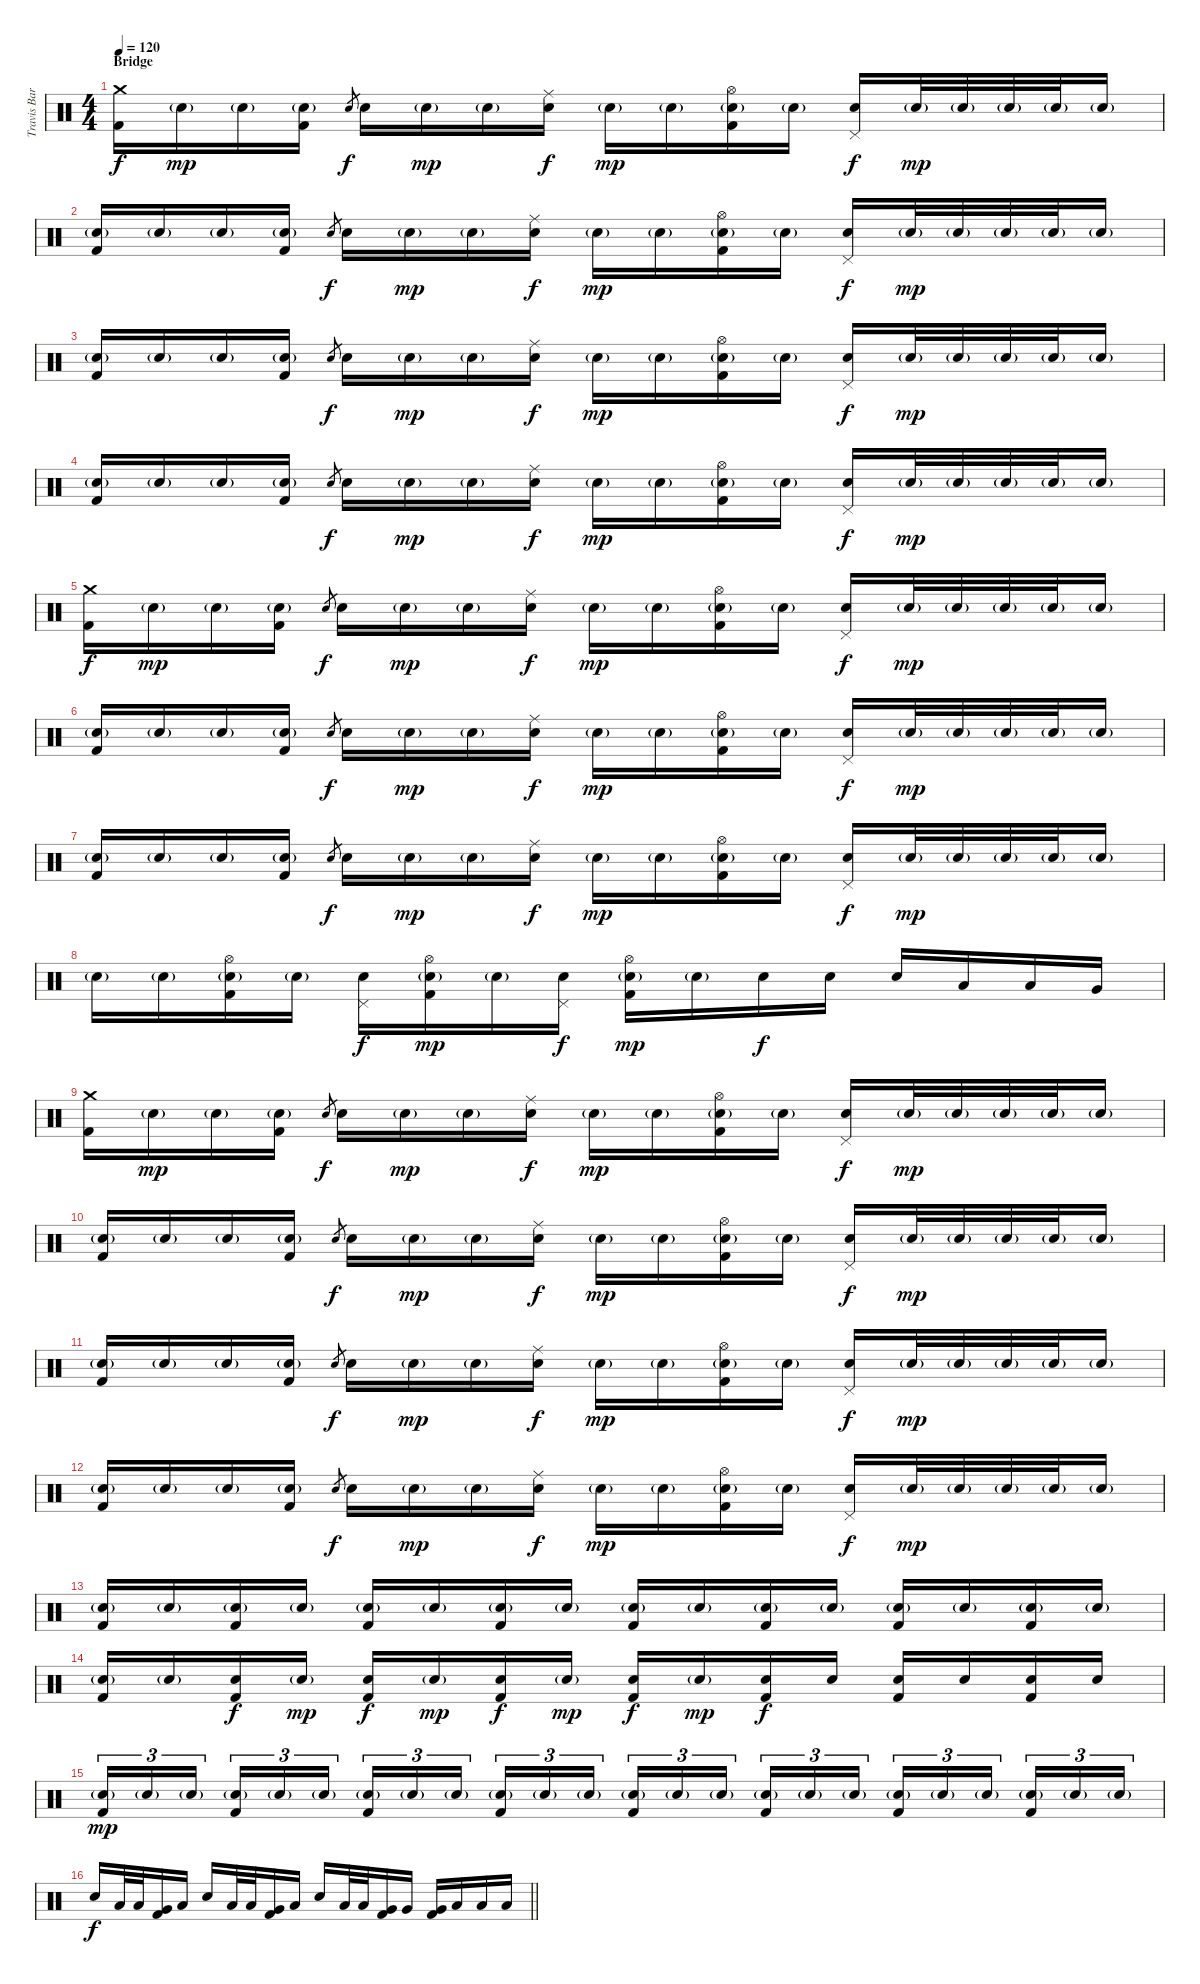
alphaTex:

\track ("Travis Barker - Drums" "Travis Bar") {instrument percussion}
\staff {score}
\articulation defaults
\ts (4 4)
\section ("" "Bridge")
\tempo 120
\clef neutral
\ks c
("Crash medium (hit)" "Kick (hit) 2").16{dy f} "Electric Snare (hit)"{g}.16{dy mp} "Electric Snare (hit)"{g}.16 ("Electric Snare (hit)"{g} "Kick (hit) 2").16 "Electric Snare (hit)".8{gr dy f} "Electric Snare (hit)".16 "Electric Snare (hit)"{g}.16{dy mp} "Electric Snare (hit)"{g}.16 ("Ride (middle)" "Electric Snare (hit)").16{dy f} "Electric Snare (hit)"{g}.16{dy mp} "Electric Snare (hit)"{g}.16 ("Hi-Hat (open)" "Electric Snare (hit)"{g} "Kick (hit) 2").16 "Electric Snare (hit)"{g}.16 ("Pedal Hi-Hat (hit)" "Electric Snare (hit)").16{dy f} "Electric Snare (hit)"{g}.32{dy mp} "Electric Snare (hit)"{g}.32 "Electric Snare (hit)"{g}.32 "Electric Snare (hit)"{g}.32 "Electric Snare (hit)"{g}.16 |
("Electric Snare (hit)"{g} "Kick (hit) 2").16 "Electric Snare (hit)"{g}.16 "Electric Snare (hit)"{g}.16 ("Electric Snare (hit)"{g} "Kick (hit) 2").16 "Electric Snare (hit)".8{gr dy f} "Electric Snare (hit)".16 "Electric Snare (hit)"{g}.16{dy mp} "Electric Snare (hit)"{g}.16 ("Ride (middle)" "Electric Snare (hit)").16{dy f} "Electric Snare (hit)"{g}.16{dy mp} "Electric Snare (hit)"{g}.16 ("Hi-Hat (open)" "Electric Snare (hit)"{g} "Kick (hit) 2").16 "Electric Snare (hit)"{g}.16 ("Pedal Hi-Hat (hit)" "Electric Snare (hit)").16{dy f} "Electric Snare (hit)"{g}.32{dy mp} "Electric Snare (hit)"{g}.32 "Electric Snare (hit)"{g}.32 "Electric Snare (hit)"{g}.32 "Electric Snare (hit)"{g}.16 |
("Electric Snare (hit)"{g} "Kick (hit) 2").16 "Electric Snare (hit)"{g}.16 "Electric Snare (hit)"{g}.16 ("Electric Snare (hit)"{g} "Kick (hit) 2").16 "Electric Snare (hit)".8{gr dy f} "Electric Snare (hit)".16 "Electric Snare (hit)"{g}.16{dy mp} "Electric Snare (hit)"{g}.16 ("Ride (middle)" "Electric Snare (hit)").16{dy f} "Electric Snare (hit)"{g}.16{dy mp} "Electric Snare (hit)"{g}.16 ("Hi-Hat (open)" "Electric Snare (hit)"{g} "Kick (hit) 2").16 "Electric Snare (hit)"{g}.16 ("Pedal Hi-Hat (hit)" "Electric Snare (hit)").16{dy f} "Electric Snare (hit)"{g}.32{dy mp} "Electric Snare (hit)"{g}.32 "Electric Snare (hit)"{g}.32 "Electric Snare (hit)"{g}.32 "Electric Snare (hit)"{g}.16 |
("Electric Snare (hit)"{g} "Kick (hit) 2").16 "Electric Snare (hit)"{g}.16 "Electric Snare (hit)"{g}.16 ("Electric Snare (hit)"{g} "Kick (hit) 2").16 "Electric Snare (hit)".8{gr dy f} "Electric Snare (hit)".16 "Electric Snare (hit)"{g}.16{dy mp} "Electric Snare (hit)"{g}.16 ("Ride (middle)" "Electric Snare (hit)").16{dy f} "Electric Snare (hit)"{g}.16{dy mp} "Electric Snare (hit)"{g}.16 ("Hi-Hat (open)" "Electric Snare (hit)"{g} "Kick (hit) 2").16 "Electric Snare (hit)"{g}.16 ("Pedal Hi-Hat (hit)" "Electric Snare (hit)").16{dy f} "Electric Snare (hit)"{g}.32{dy mp} "Electric Snare (hit)"{g}.32 "Electric Snare (hit)"{g}.32 "Electric Snare (hit)"{g}.32 "Electric Snare (hit)"{g}.16 |
("Crash medium (hit)" "Kick (hit) 2").16{dy f} "Electric Snare (hit)"{g}.16{dy mp} "Electric Snare (hit)"{g}.16 ("Electric Snare (hit)"{g} "Kick (hit) 2").16 "Electric Snare (hit)".8{gr dy f} "Electric Snare (hit)".16 "Electric Snare (hit)"{g}.16{dy mp} "Electric Snare (hit)"{g}.16 ("Ride (middle)" "Electric Snare (hit)").16{dy f} "Electric Snare (hit)"{g}.16{dy mp} "Electric Snare (hit)"{g}.16 ("Hi-Hat (open)" "Electric Snare (hit)"{g} "Kick (hit) 2").16 "Electric Snare (hit)"{g}.16 ("Pedal Hi-Hat (hit)" "Electric Snare (hit)").16{dy f} "Electric Snare (hit)"{g}.32{dy mp} "Electric Snare (hit)"{g}.32 "Electric Snare (hit)"{g}.32 "Electric Snare (hit)"{g}.32 "Electric Snare (hit)"{g}.16 |
("Electric Snare (hit)"{g} "Kick (hit) 2").16 "Electric Snare (hit)"{g}.16 "Electric Snare (hit)"{g}.16 ("Electric Snare (hit)"{g} "Kick (hit) 2").16 "Electric Snare (hit)".8{gr dy f} "Electric Snare (hit)".16 "Electric Snare (hit)"{g}.16{dy mp} "Electric Snare (hit)"{g}.16 ("Ride (middle)" "Electric Snare (hit)").16{dy f} "Electric Snare (hit)"{g}.16{dy mp} "Electric Snare (hit)"{g}.16 ("Hi-Hat (open)" "Electric Snare (hit)"{g} "Kick (hit) 2").16 "Electric Snare (hit)"{g}.16 ("Pedal Hi-Hat (hit)" "Electric Snare (hit)").16{dy f} "Electric Snare (hit)"{g}.32{dy mp} "Electric Snare (hit)"{g}.32 "Electric Snare (hit)"{g}.32 "Electric Snare (hit)"{g}.32 "Electric Snare (hit)"{g}.16 |
("Electric Snare (hit)"{g} "Kick (hit) 2").16 "Electric Snare (hit)"{g}.16 "Electric Snare (hit)"{g}.16 ("Electric Snare (hit)"{g} "Kick (hit) 2").16 "Electric Snare (hit)".8{gr dy f} "Electric Snare (hit)".16 "Electric Snare (hit)"{g}.16{dy mp} "Electric Snare (hit)"{g}.16 ("Ride (middle)" "Electric Snare (hit)").16{dy f} "Electric Snare (hit)"{g}.16{dy mp} "Electric Snare (hit)"{g}.16 ("Hi-Hat (open)" "Electric Snare (hit)"{g} "Kick (hit) 2").16 "Electric Snare (hit)"{g}.16 ("Pedal Hi-Hat (hit)" "Electric Snare (hit)").16{dy f} "Electric Snare (hit)"{g}.32{dy mp} "Electric Snare (hit)"{g}.32 "Electric Snare (hit)"{g}.32 "Electric Snare (hit)"{g}.32 "Electric Snare (hit)"{g}.16 |
"Electric Snare (hit)"{g}.16 "Electric Snare (hit)"{g}.16 ("Hi-Hat (open)" "Electric Snare (hit)"{g} "Kick (hit) 2").16 "Electric Snare (hit)"{g}.16 ("Pedal Hi-Hat (hit)" "Electric Snare (hit)").16{dy f} ("Hi-Hat (open)" "Electric Snare (hit)"{g} "Kick (hit) 2").16{dy mp} "Electric Snare (hit)"{g}.16 ("Pedal Hi-Hat (hit)" "Electric Snare (hit)").16{dy f} ("Hi-Hat (open)" "Electric Snare (hit)"{g} "Kick (hit) 2").16{dy mp} "Electric Snare (hit)"{g}.16 "Electric Snare (hit)".16{dy f} "Electric Snare (hit)".16 "Electric Snare (hit)".16 "Low Tom (hit)".16 "Low Tom (hit)".16 "Very Low Tom (hit)".16 |
("Crash medium (hit)" "Kick (hit) 2").16 "Electric Snare (hit)"{g}.16{dy mp} "Electric Snare (hit)"{g}.16 ("Electric Snare (hit)"{g} "Kick (hit) 2").16 "Electric Snare (hit)".8{gr dy f} "Electric Snare (hit)".16 "Electric Snare (hit)"{g}.16{dy mp} "Electric Snare (hit)"{g}.16 ("Ride (middle)" "Electric Snare (hit)").16{dy f} "Electric Snare (hit)"{g}.16{dy mp} "Electric Snare (hit)"{g}.16 ("Hi-Hat (open)" "Electric Snare (hit)"{g} "Kick (hit) 2").16 "Electric Snare (hit)"{g}.16 ("Pedal Hi-Hat (hit)" "Electric Snare (hit)").16{dy f} "Electric Snare (hit)"{g}.32{dy mp} "Electric Snare (hit)"{g}.32 "Electric Snare (hit)"{g}.32 "Electric Snare (hit)"{g}.32 "Electric Snare (hit)"{g}.16 |
("Electric Snare (hit)"{g} "Kick (hit) 2").16 "Electric Snare (hit)"{g}.16 "Electric Snare (hit)"{g}.16 ("Electric Snare (hit)"{g} "Kick (hit) 2").16 "Electric Snare (hit)".8{gr dy f} "Electric Snare (hit)".16 "Electric Snare (hit)"{g}.16{dy mp} "Electric Snare (hit)"{g}.16 ("Ride (middle)" "Electric Snare (hit)").16{dy f} "Electric Snare (hit)"{g}.16{dy mp} "Electric Snare (hit)"{g}.16 ("Hi-Hat (open)" "Electric Snare (hit)"{g} "Kick (hit) 2").16 "Electric Snare (hit)"{g}.16 ("Pedal Hi-Hat (hit)" "Electric Snare (hit)").16{dy f} "Electric Snare (hit)"{g}.32{dy mp} "Electric Snare (hit)"{g}.32 "Electric Snare (hit)"{g}.32 "Electric Snare (hit)"{g}.32 "Electric Snare (hit)"{g}.16 |
("Electric Snare (hit)"{g} "Kick (hit) 2").16 "Electric Snare (hit)"{g}.16 "Electric Snare (hit)"{g}.16 ("Electric Snare (hit)"{g} "Kick (hit) 2").16 "Electric Snare (hit)".8{gr dy f} "Electric Snare (hit)".16 "Electric Snare (hit)"{g}.16{dy mp} "Electric Snare (hit)"{g}.16 ("Ride (middle)" "Electric Snare (hit)").16{dy f} "Electric Snare (hit)"{g}.16{dy mp} "Electric Snare (hit)"{g}.16 ("Hi-Hat (open)" "Electric Snare (hit)"{g} "Kick (hit) 2").16 "Electric Snare (hit)"{g}.16 ("Pedal Hi-Hat (hit)" "Electric Snare (hit)").16{dy f} "Electric Snare (hit)"{g}.32{dy mp} "Electric Snare (hit)"{g}.32 "Electric Snare (hit)"{g}.32 "Electric Snare (hit)"{g}.32 "Electric Snare (hit)"{g}.16 |
("Electric Snare (hit)"{g} "Kick (hit) 2").16 "Electric Snare (hit)"{g}.16 "Electric Snare (hit)"{g}.16 ("Electric Snare (hit)"{g} "Kick (hit) 2").16 "Electric Snare (hit)".8{gr dy f} "Electric Snare (hit)".16 "Electric Snare (hit)"{g}.16{dy mp} "Electric Snare (hit)"{g}.16 ("Ride (middle)" "Electric Snare (hit)").16{dy f} "Electric Snare (hit)"{g}.16{dy mp} "Electric Snare (hit)"{g}.16 ("Hi-Hat (open)" "Electric Snare (hit)"{g} "Kick (hit) 2").16 "Electric Snare (hit)"{g}.16 ("Pedal Hi-Hat (hit)" "Electric Snare (hit)").16{dy f} "Electric Snare (hit)"{g}.32{dy mp} "Electric Snare (hit)"{g}.32 "Electric Snare (hit)"{g}.32 "Electric Snare (hit)"{g}.32 "Electric Snare (hit)"{g}.16 |
("Electric Snare (hit)"{g} "Kick (hit) 2").16{volume 9} "Electric Snare (hit)"{g}.16{volume 12} ("Electric Snare (hit)"{g} "Kick (hit) 2").16 "Electric Snare (hit)"{g}.16 ("Electric Snare (hit)"{g} "Kick (hit) 2").16 "Electric Snare (hit)"{g}.16 ("Electric Snare (hit)"{g} "Kick (hit) 2").16 "Electric Snare (hit)"{g}.16 ("Electric Snare (hit)"{g} "Kick (hit) 2").16 "Electric Snare (hit)"{g}.16 ("Electric Snare (hit)"{g} "Kick (hit) 2").16 "Electric Snare (hit)"{g}.16 ("Electric Snare (hit)"{g} "Kick (hit) 2").16 "Electric Snare (hit)"{g}.16 ("Electric Snare (hit)"{g} "Kick (hit) 2").16 "Electric Snare (hit)"{g}.16 |
("Electric Snare (hit)"{g} "Kick (hit) 2").16 "Electric Snare (hit)"{g}.16 ("Electric Snare (hit)" "Kick (hit) 2").16{dy f} "Electric Snare (hit)"{g}.16{dy mp} ("Electric Snare (hit)" "Kick (hit) 2").16{dy f} "Electric Snare (hit)"{g}.16{dy mp} ("Electric Snare (hit)" "Kick (hit) 2").16{dy f} "Electric Snare (hit)"{g}.16{dy mp} ("Electric Snare (hit)" "Kick (hit) 2").16{dy f} "Electric Snare (hit)"{g}.16{dy mp} ("Electric Snare (hit)" "Kick (hit) 2").16{dy f} "Electric Snare (hit)".16 ("Electric Snare (hit)" "Kick (hit) 2").16 "Electric Snare (hit)".16 ("Electric Snare (hit)" "Kick (hit) 2").16 "Electric Snare (hit)".16 |
("Electric Snare (hit)"{g} "Kick (hit) 2").16{tu (3 2) dy mp} "Electric Snare (hit)"{g}.16{tu (3 2)} "Electric Snare (hit)"{g}.16{tu (3 2) beam splitsecondary} ("Electric Snare (hit)"{g} "Kick (hit) 2").16{tu (3 2)} "Electric Snare (hit)"{g}.16{tu (3 2)} "Electric Snare (hit)"{g}.16{tu (3 2)} ("Electric Snare (hit)"{g} "Kick (hit) 2").16{tu (3 2)} "Electric Snare (hit)"{g}.16{tu (3 2)} "Electric Snare (hit)"{g}.16{tu (3 2) beam splitsecondary} ("Electric Snare (hit)"{g} "Kick (hit) 2").16{tu (3 2)} "Electric Snare (hit)"{g}.16{tu (3 2)} "Electric Snare (hit)"{g}.16{tu (3 2)} ("Electric Snare (hit)"{g} "Kick (hit) 2").16{tu (3 2)} "Electric Snare (hit)"{g}.16{tu (3 2)} "Electric Snare (hit)"{g}.16{tu (3 2) beam splitsecondary} ("Electric Snare (hit)"{g} "Kick (hit) 2").16{tu (3 2)} "Electric Snare (hit)"{g}.16{tu (3 2)} "Electric Snare (hit)"{g}.16{tu (3 2)} ("Electric Snare (hit)"{g} "Kick (hit) 2").16{tu (3 2)} "Electric Snare (hit)"{g}.16{tu (3 2)} "Electric Snare (hit)"{g}.16{tu (3 2) beam splitsecondary} ("Electric Snare (hit)"{g} "Kick (hit) 2").16{tu (3 2)} "Electric Snare (hit)"{g}.16{tu (3 2)} "Electric Snare (hit)"{g}.16{tu (3 2)} |
\barLineRight lightlight "Electric Snare (hit)".16{dy f} "Low Tom (hit)".32 "Low Tom (hit)".32
("Very Low Tom (hit)" "Kick (hit) 2").16 "Low Floor Tom (hit)".16 "Electric Snare (hit)".16 "Low Tom (hit)".32 "Low Tom (hit)".32 ("Very Low Tom (hit)" "Kick (hit) 2").16 "Low Floor Tom (hit)".16 "Electric Snare (hit)".16 "Low Tom (hit)".32 "Low Tom (hit)".32 ("Very Low Tom (hit)" "Kick (hit) 2").16 "Very Low Tom (hit)".16 ("Very Low Tom (hit)" "Kick (hit) 2").16 "Low Floor Tom (hit)".16 "Low Floor Tom (hit)".16 "Low Floor Tom (hit)".16
